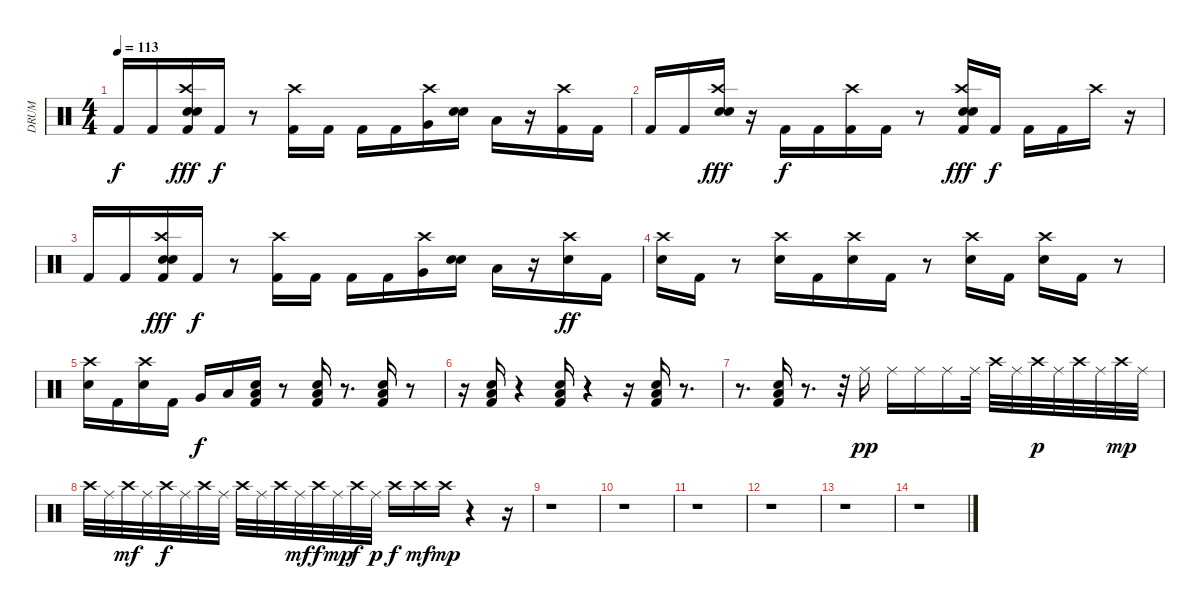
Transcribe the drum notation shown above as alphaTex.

\track ("DRUM" "DRUM") {instrument percussion}
\staff {score}
\articulation defaults
\ts (4 4)
\tempo 113
\clef neutral
\ks c "Kick (hit) 2".16{dy f} "Kick (hit) 2".16
("Electric Snare (hit)" "Crash high (hit)" "Snare (hit) 2" "Kick (hit) 2").16{dy fff} "Kick (hit) 2".16{dy f} r.8 ("Crash high (hit)" "Kick (hit) 2").16 "Kick (hit) 2".16 "Kick (hit) 2".16 "Kick (hit) 2".16 ("Crash high (hit)" "Very Low Tom (hit)").16 ("Electric Snare (hit)" "Snare (hit) 2").16 "Low Tom (hit)".16 r.16 ("Crash high (hit)" "Kick (hit) 2").16 "Kick (hit) 2".16 |
"Kick (hit) 2".16 "Kick (hit) 2".16 ("Electric Snare (hit)" "Crash high (hit)" "Snare (hit) 2").16{dy fff} r.16 "Kick (hit) 2".16{dy f} "Kick (hit) 2".16 ("Crash high (hit)" "Kick (hit) 2").16 "Kick (hit) 2".16 r.8 ("Electric Snare (hit)" "Crash high (hit)" "Snare (hit) 2" "Kick (hit) 2").16{dy fff} "Kick (hit) 2".16{dy f} "Kick (hit) 2".16 "Kick (hit) 2".16 "Crash high (hit)".16 r.16 |
"Kick (hit) 2".16 "Kick (hit) 2".16 ("Electric Snare (hit)" "Crash high (hit)" "Snare (hit) 2" "Kick (hit) 2").16{dy fff} "Kick (hit) 2".16{dy f} r.8 ("Crash high (hit)" "Kick (hit) 2").16 "Kick (hit) 2".16 "Kick (hit) 2".16 "Kick (hit) 2".16 ("Crash high (hit)" "Very Low Tom (hit)").16 ("Electric Snare (hit)" "Snare (hit) 2").16 "Low Tom (hit)".16 r.16 ("Crash high (hit)" "Electric Snare (hit)").16{dy ff} "Kick (hit) 2".16 |
("Crash high (hit)" "Electric Snare (hit)").16 "Kick (hit) 2".16 r.8 ("Crash high (hit)" "Electric Snare (hit)").16 "Kick (hit) 2".16 ("Crash high (hit)" "Electric Snare (hit)").16 "Kick (hit) 2".16 r.8 ("Crash high (hit)" "Electric Snare (hit)").16 "Kick (hit) 2".16 ("Crash high (hit)" "Electric Snare (hit)").16 "Kick (hit) 2".16 r.8 |
("Crash high (hit)" "Electric Snare (hit)").16 "Kick (hit) 2".16 ("Crash high (hit)" "Electric Snare (hit)").16 "Kick (hit) 2".16 "Very Low Tom (hit)".16{dy f} "Low Floor Tom (hit)".16 ("Low Floor Tom (hit)" "Electric Snare (hit)" "Kick (hit) 2").16 r.8 ("Low Floor Tom (hit)" "Electric Snare (hit)" "Kick (hit) 2").16 r.8{d} ("Low Floor Tom (hit)" "Electric Snare (hit)" "Kick (hit) 2").16 r.8 |
r.16 ("Low Floor Tom (hit)" "Electric Snare (hit)" "Kick (hit) 2").16 r.4 ("Low Floor Tom (hit)" "Electric Snare (hit)" "Kick (hit) 2").16 r.4 r.16 ("Low Floor Tom (hit)" "Electric Snare (hit)" "Kick (hit) 2").16 r.8{d} |
r.8{d} ("Low Floor Tom (hit)" "Electric Snare (hit)" "Kick (hit) 2").16 r.8{d} r.32 "Ride (middle)".16{dy pp} "Ride (middle)".16 "Ride (middle)".16 "Ride (middle)".16 "Ride (middle)".32 "Crash high (hit)".32 "Ride (middle)".32 "Crash high (hit)".32{dy p} "Ride (middle)".32 "Crash high (hit)".32 "Ride (middle)".32 "Crash high (hit)".32{dy mp} "Ride (middle)".32 |
"Crash high (hit)".32 "Ride (middle)".32 "Crash high (hit)".32{dy mf} "Ride (middle)".32 "Crash high (hit)".32{dy f} "Ride (middle)".32 "Crash high (hit)".32 "Ride (middle)".32 "Crash high (hit)".32 "Ride (middle)".32 "Crash high (hit)".32 "Ride (middle)".32{dy mf} "Crash high (hit)".32{dy f} "Ride (middle)".32{dy mp} "Crash high (hit)".32{dy f} "Ride (middle)".32{dy p} "Crash high (hit)".16{dy f} "Crash high (hit)".16{dy mf} "Crash high (hit)".16{dy mp} r.4 r.16 |
r.1 |
r.1 |
r.1 |
r.1 |
r.1 |
r.1
